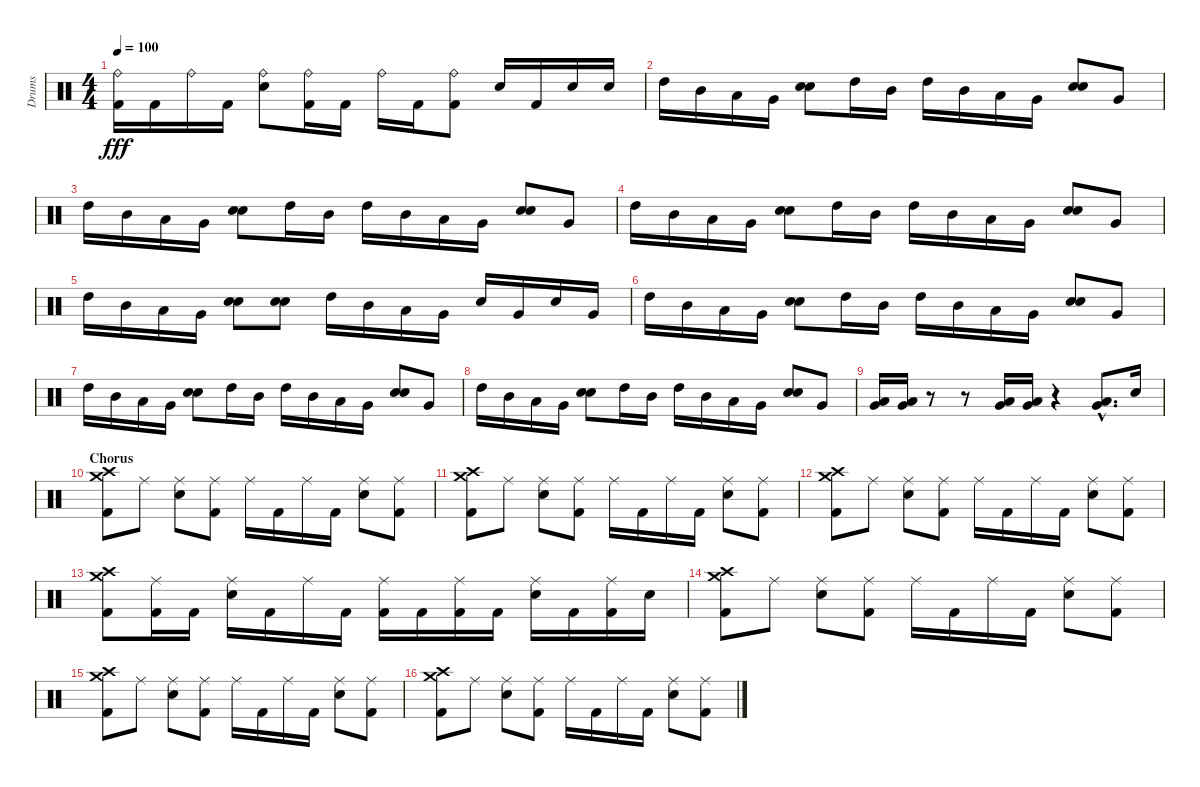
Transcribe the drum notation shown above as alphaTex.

\track ("Drums" "Drums") {instrument percussion}
\staff {score}
\articulation defaults
\ts (4 4)
\tempo 100
\clef neutral
\ks c
("Ride (bell)" "Kick (hit) 2").16{dy fff} "Kick (hit) 2".16 "Ride (bell)".16 "Kick (hit) 2".16 ("Ride (bell)" "Electric Snare (hit)").8 ("Ride (bell)" "Kick (hit) 2").16 "Kick (hit) 2".16 "Ride (bell)".16 "Kick (hit) 2".16 ("Ride (bell)" "Kick (hit) 2").8 "Electric Snare (hit)".16 "Kick (hit) 2".16 "Electric Snare (hit)".16 "Electric Snare (hit)".16 |
"High Tom (hit)".16 "Mid Tom (hit)".16 "Low Tom (hit)".16 "Very Low Tom (hit)".16 ("Electric Snare (hit)" "Electric Snare (hit)").8 "High Tom (hit)".16 "Mid Tom (hit)".16 "High Tom (hit)".16 "Mid Tom (hit)".16 "Low Tom (hit)".16 "Very Low Tom (hit)".16 ("Electric Snare (hit)" "Electric Snare (hit)").8 "Very Low Tom (hit)".8 |
"High Tom (hit)".16 "Mid Tom (hit)".16 "Low Tom (hit)".16 "Very Low Tom (hit)".16 ("Electric Snare (hit)" "Electric Snare (hit)").8 "High Tom (hit)".16 "Mid Tom (hit)".16 "High Tom (hit)".16 "Mid Tom (hit)".16 "Low Tom (hit)".16 "Very Low Tom (hit)".16 ("Electric Snare (hit)" "Electric Snare (hit)").8 "Very Low Tom (hit)".8 |
"High Tom (hit)".16 "Mid Tom (hit)".16 "Low Tom (hit)".16 "Very Low Tom (hit)".16 ("Electric Snare (hit)" "Electric Snare (hit)").8 "High Tom (hit)".16 "Mid Tom (hit)".16 "High Tom (hit)".16 "Mid Tom (hit)".16 "Low Tom (hit)".16 "Very Low Tom (hit)".16 ("Electric Snare (hit)" "Electric Snare (hit)").8 "Very Low Tom (hit)".8 |
"High Tom (hit)".16 "Mid Tom (hit)".16 "Low Tom (hit)".16 "Very Low Tom (hit)".16 ("Electric Snare (hit)" "Electric Snare (hit)").8 ("Electric Snare (hit)" "Electric Snare (hit)").8 "High Tom (hit)".16 "Mid Tom (hit)".16 "Low Tom (hit)".16 "Very Low Tom (hit)".16 "Electric Snare (hit)".16 "Very Low Tom (hit)".16 "Electric Snare (hit)".16 "Very Low Tom (hit)".16 |
"High Tom (hit)".16 "Mid Tom (hit)".16 "Low Tom (hit)".16 "Very Low Tom (hit)".16 ("Electric Snare (hit)" "Electric Snare (hit)").8 "High Tom (hit)".16 "Mid Tom (hit)".16 "High Tom (hit)".16 "Mid Tom (hit)".16 "Low Tom (hit)".16 "Very Low Tom (hit)".16 ("Electric Snare (hit)" "Electric Snare (hit)").8 "Very Low Tom (hit)".8 |
"High Tom (hit)".16 "Mid Tom (hit)".16 "Low Tom (hit)".16 "Very Low Tom (hit)".16 ("Electric Snare (hit)" "Electric Snare (hit)").8 "High Tom (hit)".16 "Mid Tom (hit)".16 "High Tom (hit)".16 "Mid Tom (hit)".16 "Low Tom (hit)".16 "Very Low Tom (hit)".16 ("Electric Snare (hit)" "Electric Snare (hit)").8 "Very Low Tom (hit)".8 |
"High Tom (hit)".16 "Mid Tom (hit)".16 "Low Tom (hit)".16 "Very Low Tom (hit)".16 ("Electric Snare (hit)" "Electric Snare (hit)").8 "High Tom (hit)".16 "Mid Tom (hit)".16 "High Tom (hit)".16 "Mid Tom (hit)".16 "Low Tom (hit)".16 "Very Low Tom (hit)".16 ("Electric Snare (hit)" "Electric Snare (hit)").8 "Very Low Tom (hit)".8 |
("Low Tom (hit)" "Very Low Tom (hit)").16 ("Low Tom (hit)" "Very Low Tom (hit)").16 r.8 r.8 ("Low Tom (hit)" "Very Low Tom (hit)").16 ("Low Tom (hit)" "Very Low Tom (hit)").16 r.4 ("Low Tom (hit)"{hac} "Very Low Tom (hit)"{hac}).8{d} "Electric Snare (hit)".16 |
\section ("" "Chorus")
("Crash high (hit)" "Crash medium (hit)" "Kick (hit) 2").8 "Ride (middle)".8 ("Ride (middle)" "Electric Snare (hit)").8 ("Ride (middle)" "Kick (hit) 2").8 "Ride (middle)".16 "Kick (hit) 2".16 "Ride (middle)".16 "Kick (hit) 2".16 ("Ride (middle)" "Electric Snare (hit)").8 ("Ride (middle)" "Kick (hit) 2").8 |
("Crash high (hit)" "Crash medium (hit)" "Kick (hit) 2").8 "Ride (middle)".8 ("Ride (middle)" "Electric Snare (hit)").8 ("Ride (middle)" "Kick (hit) 2").8 "Ride (middle)".16 "Kick (hit) 2".16 "Ride (middle)".16 "Kick (hit) 2".16 ("Ride (middle)" "Electric Snare (hit)").8 ("Ride (middle)" "Kick (hit) 2").8 |
("Crash high (hit)" "Crash medium (hit)" "Kick (hit) 2").8 "Ride (middle)".8 ("Ride (middle)" "Electric Snare (hit)").8 ("Ride (middle)" "Kick (hit) 2").8 "Ride (middle)".16 "Kick (hit) 2".16 "Ride (middle)".16 "Kick (hit) 2".16 ("Ride (middle)" "Electric Snare (hit)").8 ("Ride (middle)" "Kick (hit) 2").8 |
("Crash high (hit)" "Crash medium (hit)" "Kick (hit) 2").8 ("Ride (middle)" "Kick (hit) 2").16 "Kick (hit) 2".16 ("Ride (middle)" "Electric Snare (hit)").16 "Kick (hit) 2".16 "Ride (middle)".16 "Kick (hit) 2".16 ("Ride (middle)" "Kick (hit) 2").16 "Kick (hit) 2".16 ("Ride (middle)" "Kick (hit) 2").16 "Kick (hit) 2".16 ("Ride (middle)" "Electric Snare (hit)").16 "Kick (hit) 2".16 ("Ride (middle)" "Kick (hit) 2").16 "Electric Snare (hit)".16 |
("Crash high (hit)" "Crash medium (hit)" "Kick (hit) 2").8 "Ride (middle)".8 ("Ride (middle)" "Electric Snare (hit)").8 ("Ride (middle)" "Kick (hit) 2").8 "Ride (middle)".16 "Kick (hit) 2".16 "Ride (middle)".16 "Kick (hit) 2".16 ("Ride (middle)" "Electric Snare (hit)").8 ("Ride (middle)" "Kick (hit) 2").8 |
("Crash high (hit)" "Crash medium (hit)" "Kick (hit) 2").8 "Ride (middle)".8 ("Ride (middle)" "Electric Snare (hit)").8 ("Ride (middle)" "Kick (hit) 2").8 "Ride (middle)".16 "Kick (hit) 2".16 "Ride (middle)".16 "Kick (hit) 2".16 ("Ride (middle)" "Electric Snare (hit)").8 ("Ride (middle)" "Kick (hit) 2").8 |
("Crash high (hit)" "Crash medium (hit)" "Kick (hit) 2").8 "Ride (middle)".8 ("Ride (middle)" "Electric Snare (hit)").8 ("Ride (middle)" "Kick (hit) 2").8 "Ride (middle)".16 "Kick (hit) 2".16 "Ride (middle)".16 "Kick (hit) 2".16 ("Ride (middle)" "Electric Snare (hit)").8 ("Ride (middle)" "Kick (hit) 2").8
